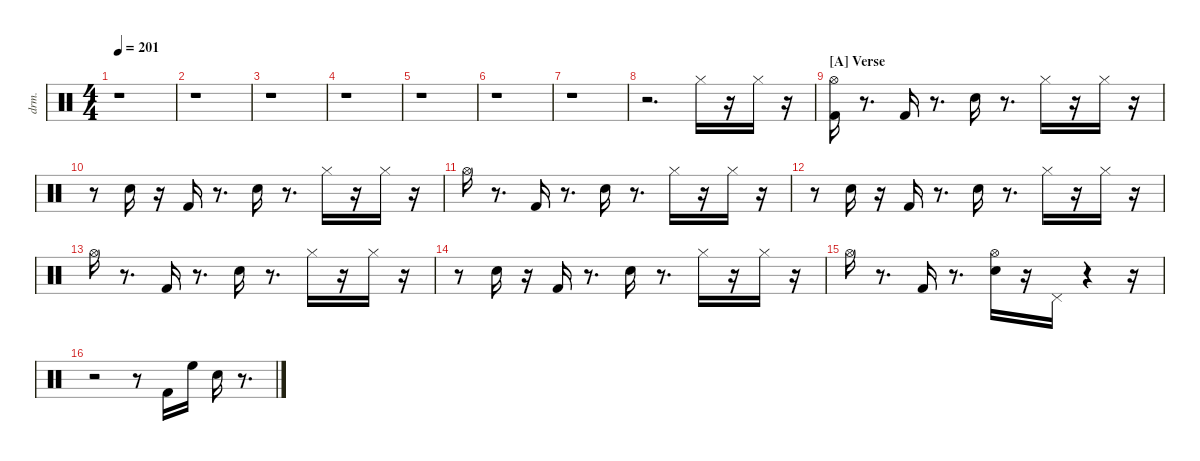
\defaultSystemsLayout 4
\hideDynamics
\bracketExtendMode nobrackets
\otherSystemsTrackNameOrientation horizontal
\track ("Drums" "drm.") {instrument percussion}
\staff {score}
\articulation defaults
\ts (4 4)
\tempo 201
\clef neutral
\ks aminor
r.1{dy ff beam Down} |
r.1{beam Down} |
r.1{beam Down} |
r.1{beam Down} |
r.1{beam Down} |
r.1{beam Down} |
r.1{beam Down} |
r.2{d beam Down} "Hi-Hat (closed)"{acc #}.16{beam Down} r.16{beam Down} "Hi-Hat (closed)"{acc #}.16{dy mf beam Down} r.16{beam Down} |
\section ("A" "Verse")
("Kick (hit) 2" "Hi-Hat (open)"{acc #}).16{dy ff beam Down} r.8{d beam Down} "Kick (hit) 2".16{dy f beam Up} r.8{d beam Up} "Snare (hit) 2".16{dy fff beam Down} r.8{d beam Down} "Hi-Hat (closed)"{acc #}.16{dy ff beam Down} r.16{beam Down} "Hi-Hat (closed)"{acc #}.16{dy fff beam Down} r.16{beam Down} |
r.8{beam Down} "Snare (hit) 2".16{dy f beam Down} r.16{beam Down} "Kick (hit) 2".16{dy ff beam Up} r.8{d beam Up} "Snare (hit) 2".16{beam Down} r.8{d beam Down} "Hi-Hat (closed)"{acc #}.16{dy fff beam Down} r.16{beam Down} "Hi-Hat (closed)"{acc #}.16{dy mf beam Down} r.16{beam Down} |
"Hi-Hat (open)"{acc #}.16{dy fff beam Down} r.8{d beam Down} "Kick (hit) 2".16{dy ff beam Up} r.8{d beam Up} "Snare (hit) 2".16{dy fff beam Down} r.8{d beam Down} "Hi-Hat (closed)"{acc #}.16{dy ff beam Down} r.16{beam Down} "Hi-Hat (closed)"{acc #}.16{dy fff beam Down} r.16{beam Down} |
r.8{beam Down} "Snare (hit) 2".16{dy f beam Down} r.16{beam Down} "Kick (hit) 2".16{dy ff beam Up} r.8{d beam Up} "Snare (hit) 2".16{beam Down} r.8{d beam Down} "Hi-Hat (closed)"{acc #}.16{dy fff beam Down} r.16{beam Down} "Hi-Hat (closed)"{acc #}.16{dy mf beam Down} r.16{beam Down} |
"Hi-Hat (open)"{acc #}.16{dy fff beam Down} r.8{d beam Down} "Kick (hit) 2".16{dy ff beam Up} r.8{d beam Up} "Snare (hit) 2".16{dy fff beam Down} r.8{d beam Down} "Hi-Hat (closed)"{acc #}.16{dy ff beam Down} r.16{beam Down} "Hi-Hat (closed)"{acc #}.16{dy fff beam Down} r.16{beam Down} |
r.8{beam Down} "Snare (hit) 2".16{dy f beam Down} r.16{beam Down} "Kick (hit) 2".16{dy ff beam Up} r.8{d beam Up} "Snare (hit) 2".16{beam Down} r.8{d beam Down} "Hi-Hat (closed)"{acc #}.16{dy fff beam Down} r.16{beam Down} "Hi-Hat (closed)"{acc #}.16{dy mf beam Down} r.16{beam Down} |
"Hi-Hat (open)"{acc #}.16{dy fff beam Down} r.8{d beam Down} "Kick (hit) 2".16{dy ff beam Up} r.8{d beam Up} ("Snare (hit) 2" "Hi-Hat (open)"{acc #}).16{dy fff beam Down} r.16{beam Down} "Pedal Hi-Hat (hit)"{acc #}.16{dy ff beam Down} r.4{beam Down} r.16{beam Down} |
r.2{beam Down} r.8{beam Down} "Kick (hit) 2".16{beam Down} "High Floor Tom (hit)".16{beam Down} "Snare (hit) 2".16{beam Down} r.8{d beam Down}
